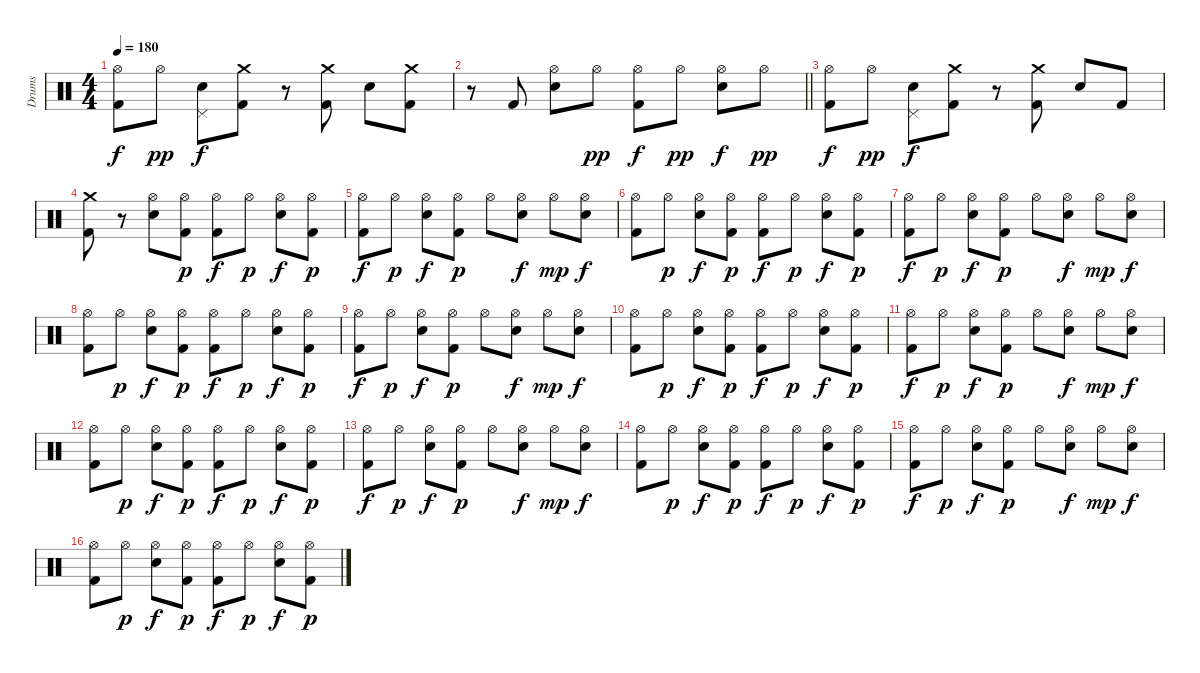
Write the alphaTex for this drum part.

\track ("Drums" "Drums") {instrument percussion}
\staff {score}
\articulation defaults
\ts (4 4)
\tempo 180
\clef neutral
\ks c
("Hi-Hat (open)" "Kick (hit) 2").8{dy f} "Hi-Hat (open)".8{dy pp} ("Pedal Hi-Hat (hit)" "Electric Snare (hit)").8{dy f} ("Crash medium (hit)" "Kick (hit) 2").8 r.8 ("Crash medium (hit)" "Kick (hit) 2").8 "Electric Snare (hit)".8 ("Crash medium (hit)" "Kick (hit) 2").8 |
\barLineRight lightlight
r.8 "Kick (hit) 2".8 ("Hi-Hat (open)" "Electric Snare (hit)").8 "Hi-Hat (open)".8{dy pp} ("Hi-Hat (open)" "Kick (hit) 2").8{dy f} "Hi-Hat (open)".8{dy pp} ("Hi-Hat (open)" "Electric Snare (hit)").8{dy f} "Hi-Hat (open)".8{dy pp} |
("Hi-Hat (open)" "Kick (hit) 2").8{dy f} "Hi-Hat (open)".8{dy pp} ("Pedal Hi-Hat (hit)" "Electric Snare (hit)").8{dy f} ("Crash medium (hit)" "Kick (hit) 2").8 r.8 ("Crash medium (hit)" "Kick (hit) 2").8 "Electric Snare (hit)".8 "Kick (hit) 2".8 |
("Crash medium (hit)" "Kick (hit) 2").8 r.8 ("Hi-Hat (open)" "Electric Snare (hit)").8 ("Hi-Hat (open)" "Kick (hit) 2").8{dy p} ("Hi-Hat (open)" "Kick (hit) 2").8{dy f} "Hi-Hat (open)".8{dy p} ("Hi-Hat (open)" "Electric Snare (hit)").8{dy f} ("Hi-Hat (open)" "Kick (hit) 2").8{dy p} |
("Hi-Hat (open)" "Kick (hit) 2").8{dy f} "Hi-Hat (open)".8{dy p} ("Hi-Hat (open)" "Electric Snare (hit)").8{dy f} ("Hi-Hat (open)" "Kick (hit) 2").8{dy p} "Hi-Hat (open)".8 ("Hi-Hat (open)" "Electric Snare (hit)").8{dy f} "Hi-Hat (open)".8{dy mp} ("Hi-Hat (open)" "Electric Snare (hit)").8{dy f} |
("Hi-Hat (open)" "Kick (hit) 2").8 "Hi-Hat (open)".8{dy p} ("Hi-Hat (open)" "Electric Snare (hit)").8{dy f} ("Hi-Hat (open)" "Kick (hit) 2").8{dy p} ("Hi-Hat (open)" "Kick (hit) 2").8{dy f} "Hi-Hat (open)".8{dy p} ("Hi-Hat (open)" "Electric Snare (hit)").8{dy f} ("Hi-Hat (open)" "Kick (hit) 2").8{dy p} |
("Hi-Hat (open)" "Kick (hit) 2").8{dy f} "Hi-Hat (open)".8{dy p} ("Hi-Hat (open)" "Electric Snare (hit)").8{dy f} ("Hi-Hat (open)" "Kick (hit) 2").8{dy p} "Hi-Hat (open)".8 ("Hi-Hat (open)" "Electric Snare (hit)").8{dy f} "Hi-Hat (open)".8{dy mp} ("Hi-Hat (open)" "Electric Snare (hit)").8{dy f} |
("Hi-Hat (open)" "Kick (hit) 2").8 "Hi-Hat (open)".8{dy p} ("Hi-Hat (open)" "Electric Snare (hit)").8{dy f} ("Hi-Hat (open)" "Kick (hit) 2").8{dy p} ("Hi-Hat (open)" "Kick (hit) 2").8{dy f} "Hi-Hat (open)".8{dy p} ("Hi-Hat (open)" "Electric Snare (hit)").8{dy f} ("Hi-Hat (open)" "Kick (hit) 2").8{dy p} |
("Hi-Hat (open)" "Kick (hit) 2").8{dy f} "Hi-Hat (open)".8{dy p} ("Hi-Hat (open)" "Electric Snare (hit)").8{dy f} ("Hi-Hat (open)" "Kick (hit) 2").8{dy p} "Hi-Hat (open)".8 ("Hi-Hat (open)" "Electric Snare (hit)").8{dy f} "Hi-Hat (open)".8{dy mp} ("Hi-Hat (open)" "Electric Snare (hit)").8{dy f} |
("Hi-Hat (open)" "Kick (hit) 2").8 "Hi-Hat (open)".8{dy p} ("Hi-Hat (open)" "Electric Snare (hit)").8{dy f} ("Hi-Hat (open)" "Kick (hit) 2").8{dy p} ("Hi-Hat (open)" "Kick (hit) 2").8{dy f} "Hi-Hat (open)".8{dy p} ("Hi-Hat (open)" "Electric Snare (hit)").8{dy f} ("Hi-Hat (open)" "Kick (hit) 2").8{dy p} |
("Hi-Hat (open)" "Kick (hit) 2").8{dy f} "Hi-Hat (open)".8{dy p} ("Hi-Hat (open)" "Electric Snare (hit)").8{dy f} ("Hi-Hat (open)" "Kick (hit) 2").8{dy p} "Hi-Hat (open)".8 ("Hi-Hat (open)" "Electric Snare (hit)").8{dy f} "Hi-Hat (open)".8{dy mp} ("Hi-Hat (open)" "Electric Snare (hit)").8{dy f} |
("Hi-Hat (open)" "Kick (hit) 2").8 "Hi-Hat (open)".8{dy p} ("Hi-Hat (open)" "Electric Snare (hit)").8{dy f} ("Hi-Hat (open)" "Kick (hit) 2").8{dy p} ("Hi-Hat (open)" "Kick (hit) 2").8{dy f} "Hi-Hat (open)".8{dy p} ("Hi-Hat (open)" "Electric Snare (hit)").8{dy f} ("Hi-Hat (open)" "Kick (hit) 2").8{dy p} |
("Hi-Hat (open)" "Kick (hit) 2").8{dy f} "Hi-Hat (open)".8{dy p} ("Hi-Hat (open)" "Electric Snare (hit)").8{dy f} ("Hi-Hat (open)" "Kick (hit) 2").8{dy p} "Hi-Hat (open)".8 ("Hi-Hat (open)" "Electric Snare (hit)").8{dy f} "Hi-Hat (open)".8{dy mp} ("Hi-Hat (open)" "Electric Snare (hit)").8{dy f} |
("Hi-Hat (open)" "Kick (hit) 2").8 "Hi-Hat (open)".8{dy p} ("Hi-Hat (open)" "Electric Snare (hit)").8{dy f} ("Hi-Hat (open)" "Kick (hit) 2").8{dy p} ("Hi-Hat (open)" "Kick (hit) 2").8{dy f} "Hi-Hat (open)".8{dy p} ("Hi-Hat (open)" "Electric Snare (hit)").8{dy f} ("Hi-Hat (open)" "Kick (hit) 2").8{dy p} |
("Hi-Hat (open)" "Kick (hit) 2").8{dy f} "Hi-Hat (open)".8{dy p} ("Hi-Hat (open)" "Electric Snare (hit)").8{dy f} ("Hi-Hat (open)" "Kick (hit) 2").8{dy p} "Hi-Hat (open)".8 ("Hi-Hat (open)" "Electric Snare (hit)").8{dy f} "Hi-Hat (open)".8{dy mp} ("Hi-Hat (open)" "Electric Snare (hit)").8{dy f} |
("Hi-Hat (open)" "Kick (hit) 2").8 "Hi-Hat (open)".8{dy p} ("Hi-Hat (open)" "Electric Snare (hit)").8{dy f} ("Hi-Hat (open)" "Kick (hit) 2").8{dy p} ("Hi-Hat (open)" "Kick (hit) 2").8{dy f} "Hi-Hat (open)".8{dy p} ("Hi-Hat (open)" "Electric Snare (hit)").8{dy f} ("Hi-Hat (open)" "Kick (hit) 2").8{dy p}
